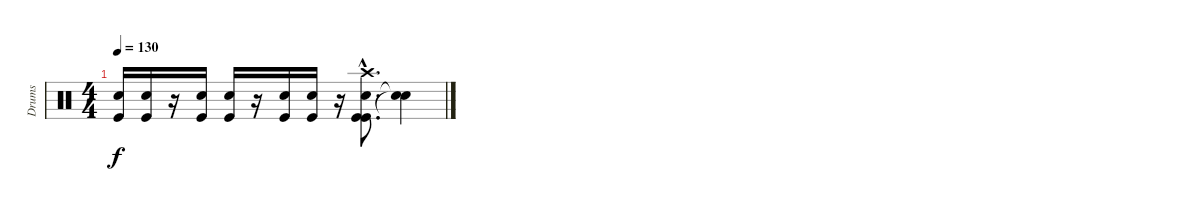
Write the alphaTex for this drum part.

\track ("Drums" "Drums") {instrument percussion}
\staff {score}
\articulation defaults
\ts (4 4)
\tempo 130
\clef neutral
\ks c
("Kick (hit)" "Electric Snare (hit)").16{dy f} ("Kick (hit)" "Electric Snare (hit)").16 r.16 ("Kick (hit)" "Electric Snare (hit)").16 ("Kick (hit)" "Electric Snare (hit)").16 r.16 ("Kick (hit)" "Electric Snare (hit)").16 ("Kick (hit)" "Electric Snare (hit)").16 r.16 ("Kick (hit)"{hac} "Electric Snare (hit)"{hac} "Kick (hit)"{hac} "Crash high (hit)"{hac}).8{d} ("Snare (hit)"{t} "Snare (hit)"{t}).4
